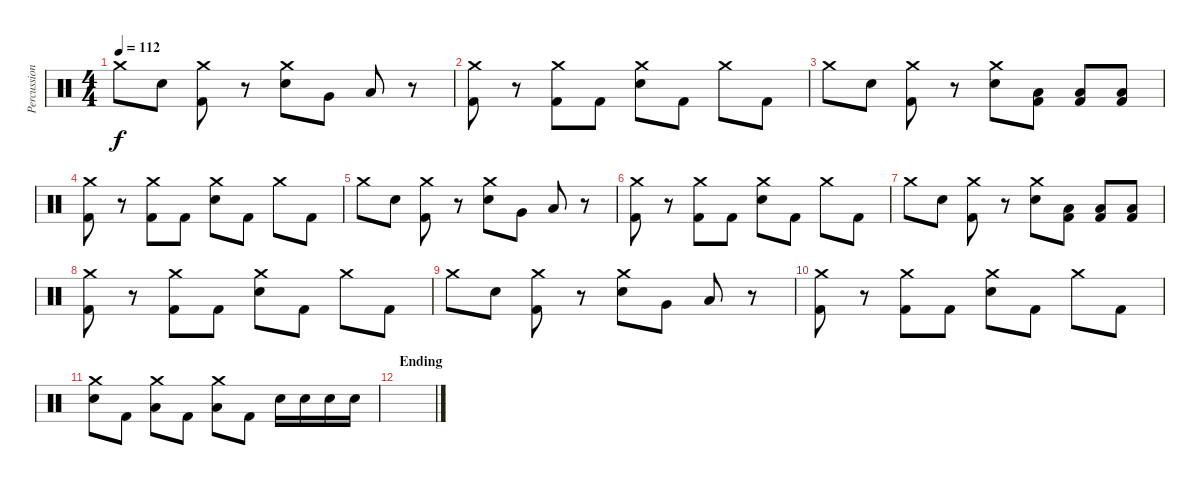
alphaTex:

\track ("Percussion" "Percussion") {instrument percussion}
\staff {score}
\articulation defaults
\ts (4 4)
\tempo 112
\clef neutral
\ks c "Crash medium (hit)".8{dy f} "Snare (hit) 2".8
("Crash medium (hit)" "Kick (hit) 2").8 r.8 ("Crash medium (hit)" "Snare (hit) 2").8 "Very Low Tom (hit)".8 "Low Tom (hit)".8 r.8 |
("Crash medium (hit)" "Kick (hit) 2").8 r.8 ("Crash medium (hit)" "Kick (hit) 2").8 "Kick (hit) 2".8 ("Crash medium (hit)" "Snare (hit) 2").8 "Kick (hit) 2".8 "Crash medium (hit)".8 "Kick (hit) 2".8 |
"Crash medium (hit)".8 "Snare (hit) 2".8 ("Crash medium (hit)" "Kick (hit) 2").8 r.8 ("Crash medium (hit)" "Snare (hit) 2").8 ("Low Floor Tom (hit)" "Kick (hit) 2").8 ("Low Floor Tom (hit)" "Kick (hit) 2").8 ("Low Floor Tom (hit)" "Kick (hit) 2").8 |
("Crash medium (hit)" "Kick (hit) 2").8 r.8 ("Crash medium (hit)" "Kick (hit) 2").8 "Kick (hit) 2".8 ("Crash medium (hit)" "Snare (hit) 2").8 "Kick (hit) 2".8 "Crash medium (hit)".8 "Kick (hit) 2".8 |
"Crash medium (hit)".8 "Snare (hit) 2".8 ("Crash medium (hit)" "Kick (hit) 2").8 r.8 ("Crash medium (hit)" "Snare (hit) 2").8 "Very Low Tom (hit)".8 "Low Tom (hit)".8 r.8 |
("Crash medium (hit)" "Kick (hit) 2").8 r.8 ("Crash medium (hit)" "Kick (hit) 2").8 "Kick (hit) 2".8 ("Crash medium (hit)" "Snare (hit) 2").8 "Kick (hit) 2".8 "Crash medium (hit)".8 "Kick (hit) 2".8 |
"Crash medium (hit)".8 "Snare (hit) 2".8 ("Crash medium (hit)" "Kick (hit) 2").8 r.8 ("Crash medium (hit)" "Snare (hit) 2").8 ("Low Floor Tom (hit)" "Kick (hit) 2").8 ("Low Floor Tom (hit)" "Kick (hit) 2").8 ("Low Floor Tom (hit)" "Kick (hit) 2").8 |
("Crash medium (hit)" "Kick (hit) 2").8 r.8 ("Crash medium (hit)" "Kick (hit) 2").8 "Kick (hit) 2".8 ("Crash medium (hit)" "Snare (hit) 2").8 "Kick (hit) 2".8 "Crash medium (hit)".8 "Kick (hit) 2".8 |
"Crash medium (hit)".8 "Snare (hit) 2".8 ("Crash medium (hit)" "Kick (hit) 2").8 r.8 ("Crash medium (hit)" "Snare (hit) 2").8 "Very Low Tom (hit)".8 "Low Tom (hit)".8 r.8 |
("Crash medium (hit)" "Kick (hit) 2").8 r.8 ("Crash medium (hit)" "Kick (hit) 2").8 "Kick (hit) 2".8 ("Crash medium (hit)" "Snare (hit) 2").8 "Kick (hit) 2".8 "Crash medium (hit)".8 "Kick (hit) 2".8 |
("Crash medium (hit)" "Snare (hit) 2").8 "Kick (hit) 2".8 ("Crash medium (hit)" "Low Floor Tom (hit)").8 "Kick (hit) 2".8 ("Crash medium (hit)" "Low Floor Tom (hit)").8 "Kick (hit) 2".8 "Snare (hit) 2".16 "Snare (hit) 2".16 "Snare (hit) 2".16 "Snare (hit) 2".16 |
\section ("" "Ending")
